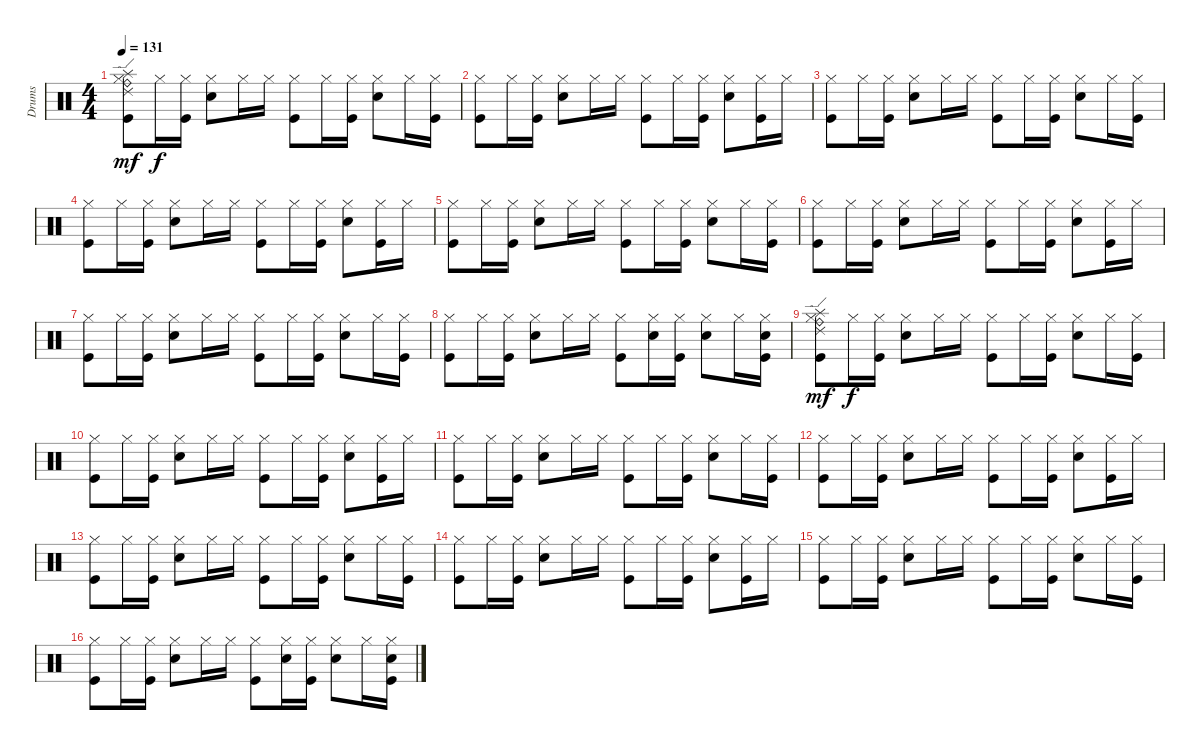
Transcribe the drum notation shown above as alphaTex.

\track ("Drums" "Drums") {instrument percussion}
\staff {score}
\articulation defaults
\ts (4 4)
\tempo 131
\clef neutral
\ks c
("Hi-Hat (closed)" "Splash (hit)" "Ride (bell)" "Ride (edge) 2" "Kick (hit)").8{dy mf} "Hi-Hat (closed)".16{dy f} ("Hi-Hat (closed)" "Kick (hit)").16 ("Hi-Hat (closed)" "Electric Snare (hit)").8 "Hi-Hat (closed)".16 "Hi-Hat (closed)".16 ("Hi-Hat (closed)" "Kick (hit)").8 "Hi-Hat (closed)".16 ("Hi-Hat (closed)" "Kick (hit)").16 ("Hi-Hat (closed)" "Electric Snare (hit)").8 "Hi-Hat (closed)".16 ("Hi-Hat (closed)" "Kick (hit)").16 |
("Hi-Hat (closed)" "Kick (hit)").8 "Hi-Hat (closed)".16 ("Hi-Hat (closed)" "Kick (hit)").16 ("Hi-Hat (closed)" "Electric Snare (hit)").8 "Hi-Hat (closed)".16 "Hi-Hat (closed)".16 ("Hi-Hat (closed)" "Kick (hit)").8 "Hi-Hat (closed)".16 ("Hi-Hat (closed)" "Kick (hit)").16 ("Hi-Hat (closed)" "Electric Snare (hit)").8 ("Hi-Hat (closed)" "Kick (hit)").16 "Hi-Hat (closed)".16 |
("Hi-Hat (closed)" "Kick (hit)").8 "Hi-Hat (closed)".16 ("Hi-Hat (closed)" "Kick (hit)").16 ("Hi-Hat (closed)" "Electric Snare (hit)").8 "Hi-Hat (closed)".16 "Hi-Hat (closed)".16 ("Hi-Hat (closed)" "Kick (hit)").8 "Hi-Hat (closed)".16 ("Hi-Hat (closed)" "Kick (hit)").16 ("Hi-Hat (closed)" "Electric Snare (hit)").8 "Hi-Hat (closed)".16 ("Hi-Hat (closed)" "Kick (hit)").16 |
("Hi-Hat (closed)" "Kick (hit)").8 "Hi-Hat (closed)".16 ("Hi-Hat (closed)" "Kick (hit)").16 ("Hi-Hat (closed)" "Electric Snare (hit)").8 "Hi-Hat (closed)".16 "Hi-Hat (closed)".16 ("Hi-Hat (closed)" "Kick (hit)").8 "Hi-Hat (closed)".16 ("Hi-Hat (closed)" "Kick (hit)").16 ("Hi-Hat (closed)" "Electric Snare (hit)").8 ("Hi-Hat (closed)" "Kick (hit)").16 "Hi-Hat (closed)".16 |
("Hi-Hat (closed)" "Kick (hit)").8 "Hi-Hat (closed)".16 ("Hi-Hat (closed)" "Kick (hit)").16 ("Hi-Hat (closed)" "Electric Snare (hit)").8 "Hi-Hat (closed)".16 "Hi-Hat (closed)".16 ("Hi-Hat (closed)" "Kick (hit)").8 "Hi-Hat (closed)".16 ("Hi-Hat (closed)" "Kick (hit)").16 ("Hi-Hat (closed)" "Electric Snare (hit)").8 "Hi-Hat (closed)".16 ("Hi-Hat (closed)" "Kick (hit)").16 |
("Hi-Hat (closed)" "Kick (hit)").8 "Hi-Hat (closed)".16 ("Hi-Hat (closed)" "Kick (hit)").16 ("Hi-Hat (closed)" "Electric Snare (hit)").8 "Hi-Hat (closed)".16 "Hi-Hat (closed)".16 ("Hi-Hat (closed)" "Kick (hit)").8 "Hi-Hat (closed)".16 ("Hi-Hat (closed)" "Kick (hit)").16 ("Hi-Hat (closed)" "Electric Snare (hit)").8 ("Hi-Hat (closed)" "Kick (hit)").16 "Hi-Hat (closed)".16 |
("Hi-Hat (closed)" "Kick (hit)").8 "Hi-Hat (closed)".16 ("Hi-Hat (closed)" "Kick (hit)").16 ("Hi-Hat (closed)" "Electric Snare (hit)").8 "Hi-Hat (closed)".16 "Hi-Hat (closed)".16 ("Hi-Hat (closed)" "Kick (hit)").8 "Hi-Hat (closed)".16 ("Hi-Hat (closed)" "Kick (hit)").16 ("Hi-Hat (closed)" "Electric Snare (hit)").8 "Hi-Hat (closed)".16 ("Hi-Hat (closed)" "Kick (hit)").16 |
("Hi-Hat (closed)" "Kick (hit)").8 "Hi-Hat (closed)".16 ("Hi-Hat (closed)" "Kick (hit)").16 ("Hi-Hat (closed)" "Electric Snare (hit)").8 "Hi-Hat (closed)".16 "Hi-Hat (closed)".16 ("Hi-Hat (closed)" "Kick (hit)").8 ("Hi-Hat (closed)" "Electric Snare (hit)").16 ("Hi-Hat (closed)" "Kick (hit)").16 ("Hi-Hat (closed)" "Electric Snare (hit)").8 "Hi-Hat (closed)".16 ("Hi-Hat (closed)" "Electric Snare (hit)" "Kick (hit)").16 |
("Hi-Hat (closed)" "Splash (hit)" "Ride (bell)" "Ride (edge) 2" "Kick (hit)").8{dy mf} "Hi-Hat (closed)".16{dy f} ("Hi-Hat (closed)" "Kick (hit)").16 ("Hi-Hat (closed)" "Electric Snare (hit)").8 "Hi-Hat (closed)".16 "Hi-Hat (closed)".16 ("Hi-Hat (closed)" "Kick (hit)").8 "Hi-Hat (closed)".16 ("Hi-Hat (closed)" "Kick (hit)").16 ("Hi-Hat (closed)" "Electric Snare (hit)").8 "Hi-Hat (closed)".16 ("Hi-Hat (closed)" "Kick (hit)").16 |
("Hi-Hat (closed)" "Kick (hit)").8 "Hi-Hat (closed)".16 ("Hi-Hat (closed)" "Kick (hit)").16 ("Hi-Hat (closed)" "Electric Snare (hit)").8 "Hi-Hat (closed)".16 "Hi-Hat (closed)".16 ("Hi-Hat (closed)" "Kick (hit)").8 "Hi-Hat (closed)".16 ("Hi-Hat (closed)" "Kick (hit)").16 ("Hi-Hat (closed)" "Electric Snare (hit)").8 ("Hi-Hat (closed)" "Kick (hit)").16 "Hi-Hat (closed)".16 |
("Hi-Hat (closed)" "Kick (hit)").8 "Hi-Hat (closed)".16 ("Hi-Hat (closed)" "Kick (hit)").16 ("Hi-Hat (closed)" "Electric Snare (hit)").8 "Hi-Hat (closed)".16 "Hi-Hat (closed)".16 ("Hi-Hat (closed)" "Kick (hit)").8 "Hi-Hat (closed)".16 ("Hi-Hat (closed)" "Kick (hit)").16 ("Hi-Hat (closed)" "Electric Snare (hit)").8 "Hi-Hat (closed)".16 ("Hi-Hat (closed)" "Kick (hit)").16 |
("Hi-Hat (closed)" "Kick (hit)").8 "Hi-Hat (closed)".16 ("Hi-Hat (closed)" "Kick (hit)").16 ("Hi-Hat (closed)" "Electric Snare (hit)").8 "Hi-Hat (closed)".16 "Hi-Hat (closed)".16 ("Hi-Hat (closed)" "Kick (hit)").8 "Hi-Hat (closed)".16 ("Hi-Hat (closed)" "Kick (hit)").16 ("Hi-Hat (closed)" "Electric Snare (hit)").8 ("Hi-Hat (closed)" "Kick (hit)").16 "Hi-Hat (closed)".16 |
("Hi-Hat (closed)" "Kick (hit)").8 "Hi-Hat (closed)".16 ("Hi-Hat (closed)" "Kick (hit)").16 ("Hi-Hat (closed)" "Electric Snare (hit)").8 "Hi-Hat (closed)".16 "Hi-Hat (closed)".16 ("Hi-Hat (closed)" "Kick (hit)").8 "Hi-Hat (closed)".16 ("Hi-Hat (closed)" "Kick (hit)").16 ("Hi-Hat (closed)" "Electric Snare (hit)").8 "Hi-Hat (closed)".16 ("Hi-Hat (closed)" "Kick (hit)").16 |
("Hi-Hat (closed)" "Kick (hit)").8 "Hi-Hat (closed)".16 ("Hi-Hat (closed)" "Kick (hit)").16 ("Hi-Hat (closed)" "Electric Snare (hit)").8 "Hi-Hat (closed)".16 "Hi-Hat (closed)".16 ("Hi-Hat (closed)" "Kick (hit)").8 "Hi-Hat (closed)".16 ("Hi-Hat (closed)" "Kick (hit)").16 ("Hi-Hat (closed)" "Electric Snare (hit)").8 ("Hi-Hat (closed)" "Kick (hit)").16 "Hi-Hat (closed)".16 |
("Hi-Hat (closed)" "Kick (hit)").8 "Hi-Hat (closed)".16 ("Hi-Hat (closed)" "Kick (hit)").16 ("Hi-Hat (closed)" "Electric Snare (hit)").8 "Hi-Hat (closed)".16 "Hi-Hat (closed)".16 ("Hi-Hat (closed)" "Kick (hit)").8 "Hi-Hat (closed)".16 ("Hi-Hat (closed)" "Kick (hit)").16 ("Hi-Hat (closed)" "Electric Snare (hit)").8 "Hi-Hat (closed)".16 ("Hi-Hat (closed)" "Kick (hit)").16 |
("Hi-Hat (closed)" "Kick (hit)").8 "Hi-Hat (closed)".16 ("Hi-Hat (closed)" "Kick (hit)").16 ("Hi-Hat (closed)" "Electric Snare (hit)").8 "Hi-Hat (closed)".16 "Hi-Hat (closed)".16 ("Hi-Hat (closed)" "Kick (hit)").8 ("Hi-Hat (closed)" "Electric Snare (hit)").16 ("Hi-Hat (closed)" "Kick (hit)").16 ("Hi-Hat (closed)" "Electric Snare (hit)").8 "Hi-Hat (closed)".16 ("Hi-Hat (closed)" "Electric Snare (hit)" "Kick (hit)").16
